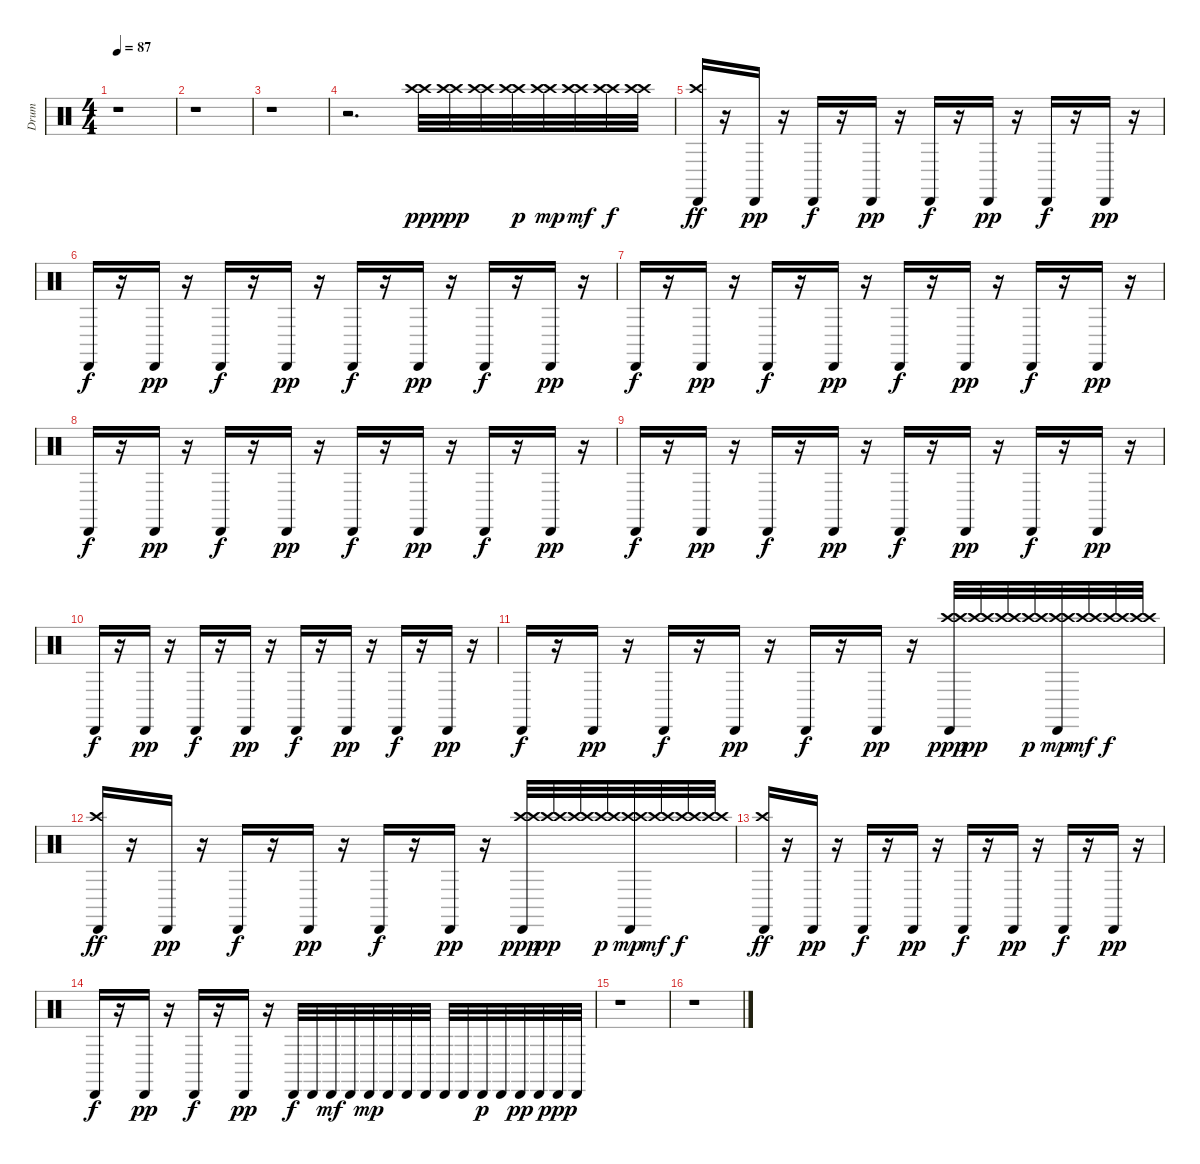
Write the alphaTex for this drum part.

\track ("Drum" "Drum") {instrument percussion}
\staff {score}
\articulation defaults
\ts (4 4)
\tempo 87
\clef neutral
\ks c
r.1{dy f} |
r.1 |
r.1 |
r.2{d} ("Crash high (hit)" "Crash high (hit)").32{dy ppp} ("Crash high (hit)" "Crash high (hit)").32{dy pp} ("Crash high (hit)" "Crash high (hit)").32 ("Crash high (hit)" "Crash high (hit)").32{dy p} ("Crash high (hit)" "Crash high (hit)").32{dy mp} ("Crash high (hit)" "Crash high (hit)").32{dy mf} ("Crash high (hit)" "Crash high (hit)").32{dy f} ("Crash high (hit)" "Crash high (hit)").32 |
("Crash high (hit)" "Cabasa (hit)").16{dy ff} r.16 "Cabasa (hit)".16{dy pp} r.16 "Cabasa (hit)".16{dy f} r.16 "Cabasa (hit)".16{dy pp} r.16 "Cabasa (hit)".16{dy f} r.16 "Cabasa (hit)".16{dy pp} r.16 "Cabasa (hit)".16{dy f} r.16 "Cabasa (hit)".16{dy pp} r.16 |
"Cabasa (hit)".16{dy f} r.16 "Cabasa (hit)".16{dy pp} r.16 "Cabasa (hit)".16{dy f} r.16 "Cabasa (hit)".16{dy pp} r.16 "Cabasa (hit)".16{dy f} r.16 "Cabasa (hit)".16{dy pp} r.16 "Cabasa (hit)".16{dy f} r.16 "Cabasa (hit)".16{dy pp} r.16 |
"Cabasa (hit)".16{dy f} r.16 "Cabasa (hit)".16{dy pp} r.16 "Cabasa (hit)".16{dy f} r.16 "Cabasa (hit)".16{dy pp} r.16 "Cabasa (hit)".16{dy f} r.16 "Cabasa (hit)".16{dy pp} r.16 "Cabasa (hit)".16{dy f} r.16 "Cabasa (hit)".16{dy pp} r.16 |
"Cabasa (hit)".16{dy f} r.16 "Cabasa (hit)".16{dy pp} r.16 "Cabasa (hit)".16{dy f} r.16 "Cabasa (hit)".16{dy pp} r.16 "Cabasa (hit)".16{dy f} r.16 "Cabasa (hit)".16{dy pp} r.16 "Cabasa (hit)".16{dy f} r.16 "Cabasa (hit)".16{dy pp} r.16 |
"Cabasa (hit)".16{dy f} r.16 "Cabasa (hit)".16{dy pp} r.16 "Cabasa (hit)".16{dy f} r.16 "Cabasa (hit)".16{dy pp} r.16 "Cabasa (hit)".16{dy f} r.16 "Cabasa (hit)".16{dy pp} r.16 "Cabasa (hit)".16{dy f} r.16 "Cabasa (hit)".16{dy pp} r.16 |
"Cabasa (hit)".16{dy f} r.16 "Cabasa (hit)".16{dy pp} r.16 "Cabasa (hit)".16{dy f} r.16 "Cabasa (hit)".16{dy pp} r.16 "Cabasa (hit)".16{dy f} r.16 "Cabasa (hit)".16{dy pp} r.16 "Cabasa (hit)".16{dy f} r.16 "Cabasa (hit)".16{dy pp} r.16 |
"Cabasa (hit)".16{dy f} r.16 "Cabasa (hit)".16{dy pp} r.16 "Cabasa (hit)".16{dy f} r.16 "Cabasa (hit)".16{dy pp} r.16 "Cabasa (hit)".16{dy f} r.16 "Cabasa (hit)".16{dy pp} r.16 ("Cabasa (hit)" "Crash high (hit)" "Crash high (hit)").32{dy ppp} ("Crash high (hit)" "Crash high (hit)").32{dy pp} ("Crash high (hit)" "Crash high (hit)").32 ("Crash high (hit)" "Crash high (hit)").32{dy p} ("Cabasa (hit)" "Crash high (hit)" "Crash high (hit)").32{dy mp} ("Crash high (hit)" "Crash high (hit)").32{dy mf} ("Crash high (hit)" "Crash high (hit)").32{dy f} ("Crash high (hit)" "Crash high (hit)").32 |
("Crash high (hit)" "Cabasa (hit)").16{dy ff} r.16 "Cabasa (hit)".16{dy pp} r.16 "Cabasa (hit)".16{dy f} r.16 "Cabasa (hit)".16{dy pp} r.16 "Cabasa (hit)".16{dy f} r.16 "Cabasa (hit)".16{dy pp} r.16 ("Crash high (hit)" "Cabasa (hit)" "Crash high (hit)").32{dy ppp} ("Crash high (hit)" "Crash high (hit)").32{dy pp} ("Crash high (hit)" "Crash high (hit)").32 ("Crash high (hit)" "Crash high (hit)").32{dy p} ("Crash high (hit)" "Cabasa (hit)" "Crash high (hit)").32{dy mp} ("Crash high (hit)" "Crash high (hit)").32{dy mf} ("Crash high (hit)" "Crash high (hit)").32{dy f} ("Crash high (hit)" "Crash high (hit)").32 |
("Crash high (hit)" "Cabasa (hit)").16{dy ff} r.16 "Cabasa (hit)".16{dy pp} r.16 "Cabasa (hit)".16{dy f} r.16 "Cabasa (hit)".16{dy pp} r.16 "Cabasa (hit)".16{dy f} r.16 "Cabasa (hit)".16{dy pp} r.16 "Cabasa (hit)".16{dy f} r.16 "Cabasa (hit)".16{dy pp} r.16 |
"Cabasa (hit)".16{dy f} r.16 "Cabasa (hit)".16{dy pp} r.16 "Cabasa (hit)".16{dy f} r.16 "Cabasa (hit)".16{dy pp} r.16 "Cabasa (hit)".32{dy f} "Cabasa (hit)".32 "Cabasa (hit)".32{dy mf} "Cabasa (hit)".32 "Cabasa (hit)".32{dy mp} "Cabasa (hit)".32 "Cabasa (hit)".32 "Cabasa (hit)".32 "Cabasa (hit)".32 "Cabasa (hit)".32 "Cabasa (hit)".32{dy p} "Cabasa (hit)".32 "Cabasa (hit)".32{dy pp} "Cabasa (hit)".32 "Cabasa (hit)".32{dy ppp} "Cabasa (hit)".32 |
r.1 |
r.1
